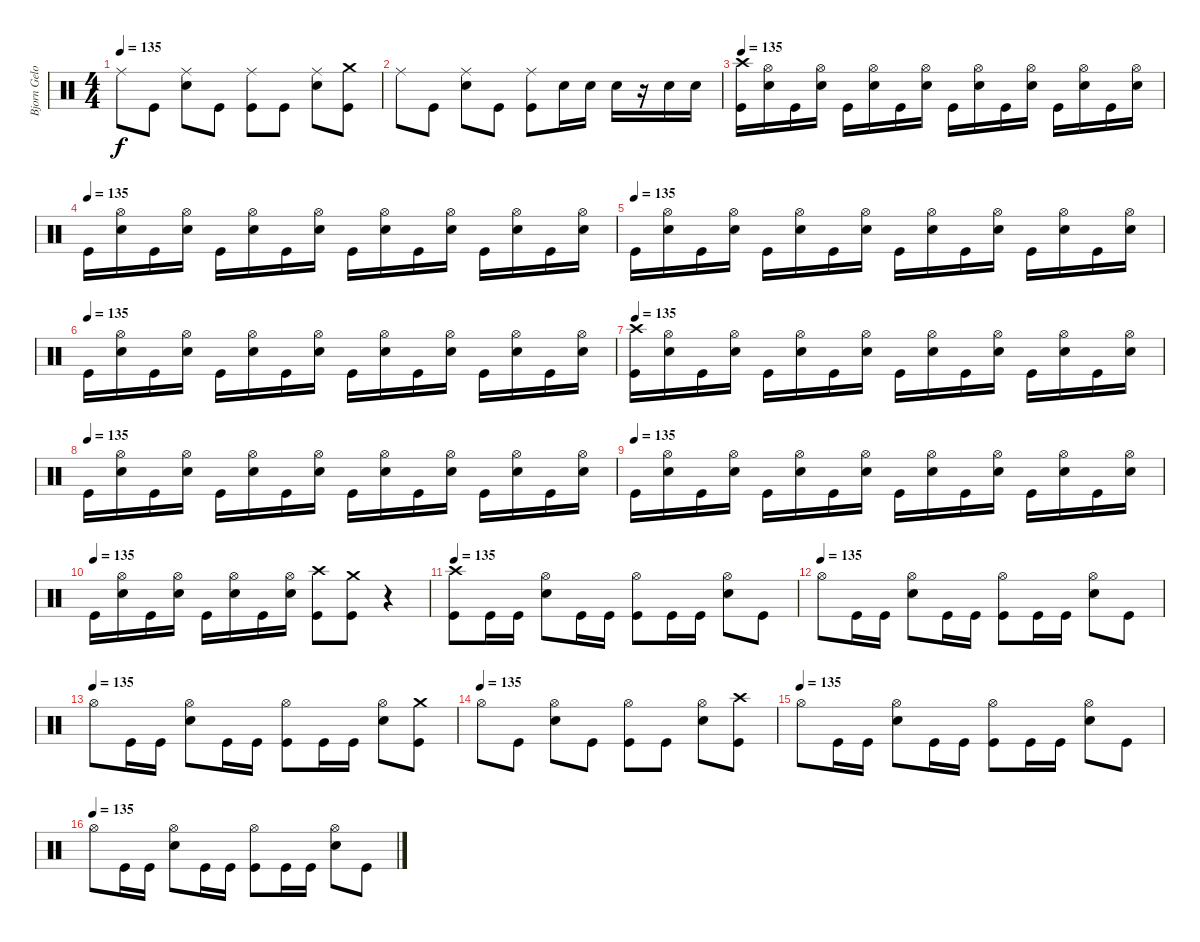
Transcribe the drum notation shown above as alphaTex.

\track ("Bjorn Gelotte-Drum" "Bjorn Gelo") {instrument percussion}
\staff {score}
\articulation defaults
\ts (4 4)
\tempo 135
\clef neutral
\ks c "Ride (middle)".8{dy f} "Kick (hit)".8
("Electric Snare (hit)" "Ride (middle)").8 "Kick (hit)".8 ("Kick (hit)" "Ride (middle)").8 "Kick (hit)".8 ("Electric Snare (hit)" "Ride (middle)").8 ("Kick (hit)" "Crash medium (hit)").8 |
"Ride (middle)".8 "Kick (hit)".8 ("Electric Snare (hit)" "Ride (middle)").8 "Kick (hit)".8 ("Kick (hit)" "Ride (middle)").8 "Electric Snare (hit)".16 "Electric Snare (hit)".16 "Electric Snare (hit)".16 r.16 "Electric Snare (hit)".16 "Electric Snare (hit)".16 |
\tempo 135
("Kick (hit)" "Crash high (hit)").16 ("Electric Snare (hit)" "Hi-Hat (open)").16 "Kick (hit)".16 ("Electric Snare (hit)" "Hi-Hat (open)").16 "Kick (hit)".16 ("Electric Snare (hit)" "Hi-Hat (open)").16 "Kick (hit)".16 ("Electric Snare (hit)" "Hi-Hat (open)").16 "Kick (hit)".16 ("Electric Snare (hit)" "Hi-Hat (open)").16 "Kick (hit)".16 ("Electric Snare (hit)" "Hi-Hat (open)").16 "Kick (hit)".16 ("Electric Snare (hit)" "Hi-Hat (open)").16 "Kick (hit)".16 ("Electric Snare (hit)" "Hi-Hat (open)").16 |
\tempo (135)
"Kick (hit)".16 ("Electric Snare (hit)" "Hi-Hat (open)").16 "Kick (hit)".16 ("Electric Snare (hit)" "Hi-Hat (open)").16 "Kick (hit)".16 ("Electric Snare (hit)" "Hi-Hat (open)").16 "Kick (hit)".16 ("Electric Snare (hit)" "Hi-Hat (open)").16 "Kick (hit)".16 ("Electric Snare (hit)" "Hi-Hat (open)").16 "Kick (hit)".16 ("Electric Snare (hit)" "Hi-Hat (open)").16 "Kick (hit)".16 ("Electric Snare (hit)" "Hi-Hat (open)").16 "Kick (hit)".16 ("Electric Snare (hit)" "Hi-Hat (open)").16 |
\tempo (135)
"Kick (hit)".16 ("Electric Snare (hit)" "Hi-Hat (open)").16 "Kick (hit)".16 ("Electric Snare (hit)" "Hi-Hat (open)").16 "Kick (hit)".16 ("Electric Snare (hit)" "Hi-Hat (open)").16 "Kick (hit)".16 ("Electric Snare (hit)" "Hi-Hat (open)").16 "Kick (hit)".16 ("Electric Snare (hit)" "Hi-Hat (open)").16 "Kick (hit)".16 ("Electric Snare (hit)" "Hi-Hat (open)").16 "Kick (hit)".16 ("Electric Snare (hit)" "Hi-Hat (open)").16 "Kick (hit)".16 ("Electric Snare (hit)" "Hi-Hat (open)").16 |
\tempo (135)
"Kick (hit)".16 ("Electric Snare (hit)" "Hi-Hat (open)").16 "Kick (hit)".16 ("Electric Snare (hit)" "Hi-Hat (open)").16 "Kick (hit)".16 ("Electric Snare (hit)" "Hi-Hat (open)").16 "Kick (hit)".16 ("Electric Snare (hit)" "Hi-Hat (open)").16 "Kick (hit)".16 ("Electric Snare (hit)" "Hi-Hat (open)").16 "Kick (hit)".16 ("Electric Snare (hit)" "Hi-Hat (open)").16 "Kick (hit)".16 ("Electric Snare (hit)" "Hi-Hat (open)").16 "Kick (hit)".16 ("Electric Snare (hit)" "Hi-Hat (open)").16 |
\tempo 135
("Kick (hit)" "Crash high (hit)").16 ("Electric Snare (hit)" "Hi-Hat (open)").16 "Kick (hit)".16 ("Electric Snare (hit)" "Hi-Hat (open)").16 "Kick (hit)".16 ("Electric Snare (hit)" "Hi-Hat (open)").16 "Kick (hit)".16 ("Electric Snare (hit)" "Hi-Hat (open)").16 "Kick (hit)".16 ("Electric Snare (hit)" "Hi-Hat (open)").16 "Kick (hit)".16 ("Electric Snare (hit)" "Hi-Hat (open)").16 "Kick (hit)".16 ("Electric Snare (hit)" "Hi-Hat (open)").16 "Kick (hit)".16 ("Electric Snare (hit)" "Hi-Hat (open)").16 |
\tempo (135)
"Kick (hit)".16 ("Electric Snare (hit)" "Hi-Hat (open)").16 "Kick (hit)".16 ("Electric Snare (hit)" "Hi-Hat (open)").16 "Kick (hit)".16 ("Electric Snare (hit)" "Hi-Hat (open)").16 "Kick (hit)".16 ("Electric Snare (hit)" "Hi-Hat (open)").16 "Kick (hit)".16 ("Electric Snare (hit)" "Hi-Hat (open)").16 "Kick (hit)".16 ("Electric Snare (hit)" "Hi-Hat (open)").16 "Kick (hit)".16 ("Electric Snare (hit)" "Hi-Hat (open)").16 "Kick (hit)".16 ("Electric Snare (hit)" "Hi-Hat (open)").16 |
\tempo (135)
"Kick (hit)".16 ("Electric Snare (hit)" "Hi-Hat (open)").16 "Kick (hit)".16 ("Electric Snare (hit)" "Hi-Hat (open)").16 "Kick (hit)".16 ("Electric Snare (hit)" "Hi-Hat (open)").16 "Kick (hit)".16 ("Electric Snare (hit)" "Hi-Hat (open)").16 "Kick (hit)".16 ("Electric Snare (hit)" "Hi-Hat (open)").16 "Kick (hit)".16 ("Electric Snare (hit)" "Hi-Hat (open)").16 "Kick (hit)".16 ("Electric Snare (hit)" "Hi-Hat (open)").16 "Kick (hit)".16 ("Electric Snare (hit)" "Hi-Hat (open)").16 |
\tempo (135)
"Kick (hit)".16 ("Electric Snare (hit)" "Hi-Hat (open)").16 "Kick (hit)".16 ("Electric Snare (hit)" "Hi-Hat (open)").16 "Kick (hit)".16 ("Electric Snare (hit)" "Hi-Hat (open)").16 "Kick (hit)".16 ("Electric Snare (hit)" "Hi-Hat (open)").16 ("Kick (hit)" "Crash high (hit)").8 ("Kick (hit)" "Crash medium (hit)").8 r.4 |
\tempo 135
("Kick (hit)" "Crash high (hit)").8 "Kick (hit)".16 "Kick (hit)".16 ("Electric Snare (hit)" "Hi-Hat (open)").8 "Kick (hit)".16 "Kick (hit)".16 ("Kick (hit)" "Hi-Hat (open)").8 "Kick (hit)".16 "Kick (hit)".16 ("Electric Snare (hit)" "Hi-Hat (open)").8 "Kick (hit)".8 |
\tempo (135)
"Hi-Hat (open)".8 "Kick (hit)".16 "Kick (hit)".16 ("Electric Snare (hit)" "Hi-Hat (open)").8 "Kick (hit)".16 "Kick (hit)".16 ("Kick (hit)" "Hi-Hat (open)").8 "Kick (hit)".16 "Kick (hit)".16 ("Electric Snare (hit)" "Hi-Hat (open)").8 "Kick (hit)".8 |
\tempo (135)
"Hi-Hat (open)".8 "Kick (hit)".16 "Kick (hit)".16 ("Electric Snare (hit)" "Hi-Hat (open)").8 "Kick (hit)".16 "Kick (hit)".16 ("Kick (hit)" "Hi-Hat (open)").8 "Kick (hit)".16 "Kick (hit)".16 ("Electric Snare (hit)" "Hi-Hat (open)").8 ("Kick (hit)" "Crash medium (hit)").8 |
\tempo (135)
"Hi-Hat (open)".8 "Kick (hit)".8 ("Electric Snare (hit)" "Hi-Hat (open)").8 "Kick (hit)".8 ("Kick (hit)" "Hi-Hat (open)").8 "Kick (hit)".8 ("Electric Snare (hit)" "Hi-Hat (open)").8 ("Kick (hit)" "Crash high (hit)").8 |
\tempo (135)
"Hi-Hat (open)".8 "Kick (hit)".16 "Kick (hit)".16 ("Electric Snare (hit)" "Hi-Hat (open)").8 "Kick (hit)".16 "Kick (hit)".16 ("Kick (hit)" "Hi-Hat (open)").8 "Kick (hit)".16 "Kick (hit)".16 ("Electric Snare (hit)" "Hi-Hat (open)").8 "Kick (hit)".8 |
\tempo (135)
"Hi-Hat (open)".8 "Kick (hit)".16 "Kick (hit)".16 ("Electric Snare (hit)" "Hi-Hat (open)").8 "Kick (hit)".16 "Kick (hit)".16 ("Kick (hit)" "Hi-Hat (open)").8 "Kick (hit)".16 "Kick (hit)".16 ("Electric Snare (hit)" "Hi-Hat (open)").8 "Kick (hit)".8
